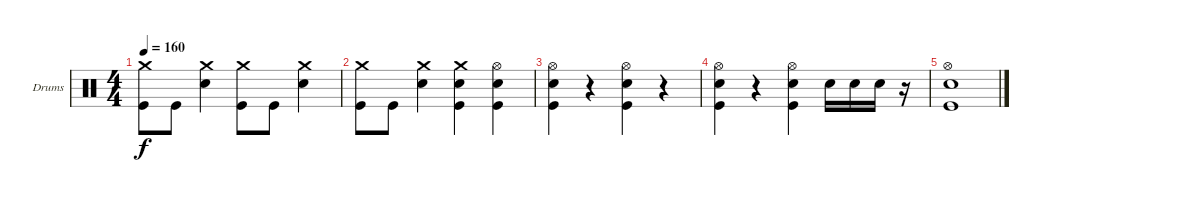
\bracketExtendMode groupsimilarinstruments
\firstSystemTrackNameOrientation horizontal
\otherSystemsTrackNameOrientation horizontal
\track ("Drum" "Drums") {instrument percussion}
\staff {score}
\articulation defaults
\ts (4 4)
\tempo 160
\clef neutral
\ks c
("Crash medium (hit)" "Kick (hit)").8{dy f} "Kick (hit)".8 ("Crash medium (hit)" "Snare (hit) 2").4 ("Crash medium (hit)" "Kick (hit)").8 "Kick (hit)".8 ("Crash medium (hit)" "Snare (hit) 2").4 |
("Crash medium (hit)" "Kick (hit)").8 "Kick (hit)".8 ("Crash medium (hit)" "Snare (hit) 2").4 ("Crash medium (hit)" "Snare (hit) 2" "Kick (hit)").4 ("Hi-Hat (open)" "Snare (hit) 2" "Kick (hit)").4 |
("Hi-Hat (open)" "Snare (hit) 2" "Kick (hit)").4 r.4 ("Hi-Hat (open)" "Snare (hit) 2" "Kick (hit)").4 r.4 |
("Hi-Hat (open)" "Snare (hit) 2" "Kick (hit)").4 r.4 ("Hi-Hat (open)" "Snare (hit) 2" "Kick (hit)").4 "Snare (hit) 2".16 "Snare (hit) 2".16 "Snare (hit) 2".16 r.16 |
("Hi-Hat (open)" "Snare (hit) 2" "Kick (hit)").1
